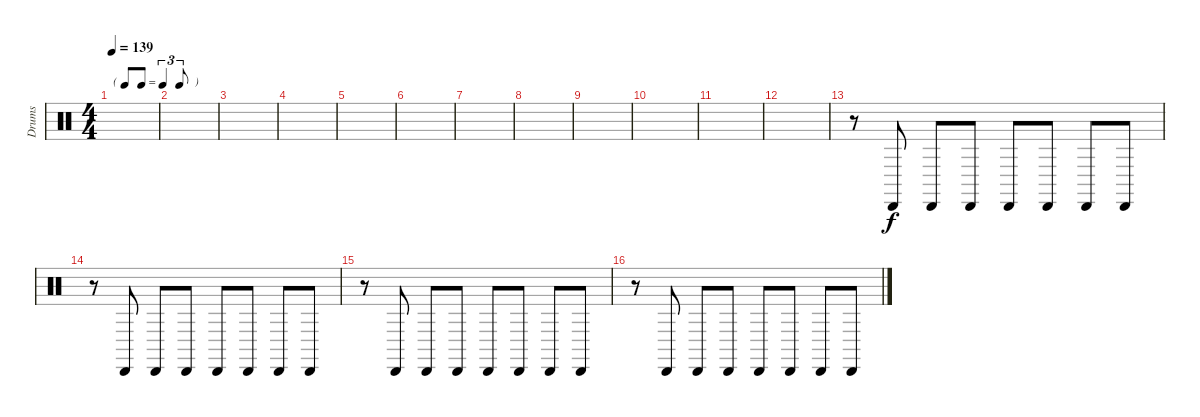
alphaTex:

\track ("Drums" "Drums") {instrument percussion}
\staff {score}
\articulation defaults
\ts (4 4)
\tf triplet8th
\tempo 139
\clef neutral
\ks c
|
|
|
|
|
|
|
|
|
|
|
|
r.8 "Cabasa (hit)".8 "Cabasa (hit)".8 "Cabasa (hit)".8 "Cabasa (hit)".8 "Cabasa (hit)".8 "Cabasa (hit)".8 "Cabasa (hit)".8 |
r.8 "Cabasa (hit)".8 "Cabasa (hit)".8 "Cabasa (hit)".8 "Cabasa (hit)".8 "Cabasa (hit)".8 "Cabasa (hit)".8 "Cabasa (hit)".8 |
r.8 "Cabasa (hit)".8 "Cabasa (hit)".8 "Cabasa (hit)".8 "Cabasa (hit)".8 "Cabasa (hit)".8 "Cabasa (hit)".8 "Cabasa (hit)".8 |
r.8 "Cabasa (hit)".8 "Cabasa (hit)".8 "Cabasa (hit)".8 "Cabasa (hit)".8 "Cabasa (hit)".8 "Cabasa (hit)".8 "Cabasa (hit)".8
